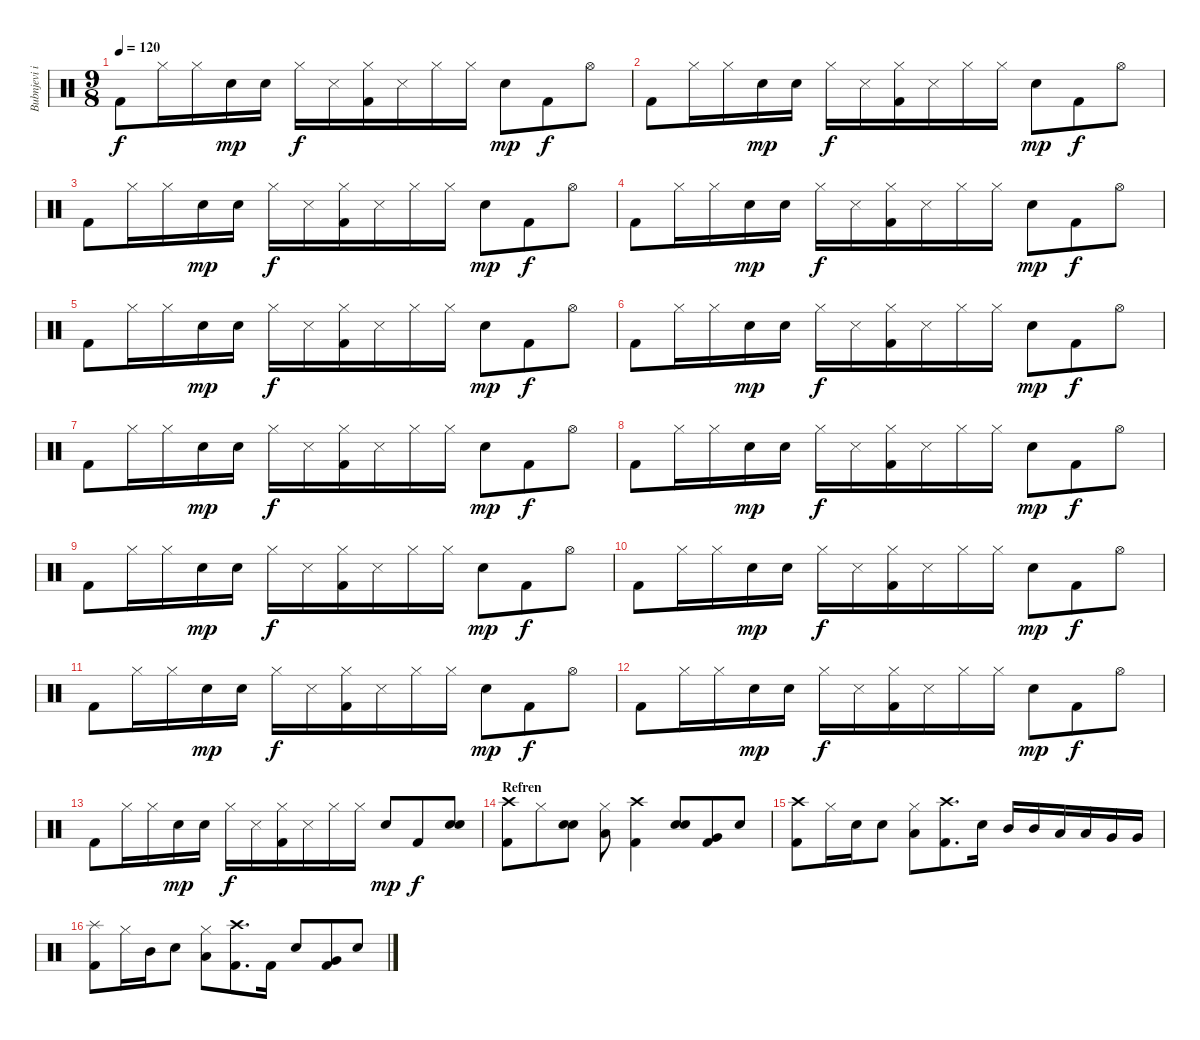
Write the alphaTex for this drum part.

\track ("Bubnjevi i perkusije" "Bubnjevi i") {instrument percussion}
\staff {score}
\articulation defaults
\ts (9 8)
\tempo 120
\clef neutral
\ks c "Kick (hit) 2".8{dy f} "Hi-Hat (closed)".16 "Hi-Hat (closed)".16 "Electric Snare (hit)".16{dy mp} "Electric Snare (hit)".16 "Hi-Hat (closed)".16{dy f} "Snare (side stick) 3".16
("Hi-Hat (closed)" "Kick (hit) 2").16 "Snare (side stick) 3".16 "Hi-Hat (closed)".16 "Hi-Hat (closed)".16 "Electric Snare (hit)".8{dy mp} "Kick (hit) 2".8{dy f} "Hi-Hat (open)".8 |
"Kick (hit) 2".8 "Hi-Hat (closed)".16 "Hi-Hat (closed)".16 "Electric Snare (hit)".16{dy mp} "Electric Snare (hit)".16 "Hi-Hat (closed)".16{dy f} "Snare (side stick) 3".16 ("Hi-Hat (closed)" "Kick (hit) 2").16 "Snare (side stick) 3".16 "Hi-Hat (closed)".16 "Hi-Hat (closed)".16 "Electric Snare (hit)".8{dy mp} "Kick (hit) 2".8{dy f} "Hi-Hat (open)".8 |
"Kick (hit) 2".8 "Hi-Hat (closed)".16 "Hi-Hat (closed)".16 "Electric Snare (hit)".16{dy mp} "Electric Snare (hit)".16 "Hi-Hat (closed)".16{dy f} "Snare (side stick) 3".16 ("Hi-Hat (closed)" "Kick (hit) 2").16 "Snare (side stick) 3".16 "Hi-Hat (closed)".16 "Hi-Hat (closed)".16 "Electric Snare (hit)".8{dy mp} "Kick (hit) 2".8{dy f} "Hi-Hat (open)".8 |
"Kick (hit) 2".8 "Hi-Hat (closed)".16 "Hi-Hat (closed)".16 "Electric Snare (hit)".16{dy mp} "Electric Snare (hit)".16 "Hi-Hat (closed)".16{dy f} "Snare (side stick) 3".16 ("Hi-Hat (closed)" "Kick (hit) 2").16 "Snare (side stick) 3".16 "Hi-Hat (closed)".16 "Hi-Hat (closed)".16 "Electric Snare (hit)".8{dy mp} "Kick (hit) 2".8{dy f} "Hi-Hat (open)".8 |
"Kick (hit) 2".8 "Hi-Hat (closed)".16 "Hi-Hat (closed)".16 "Electric Snare (hit)".16{dy mp} "Electric Snare (hit)".16 "Hi-Hat (closed)".16{dy f} "Snare (side stick) 3".16 ("Hi-Hat (closed)" "Kick (hit) 2").16 "Snare (side stick) 3".16 "Hi-Hat (closed)".16 "Hi-Hat (closed)".16 "Electric Snare (hit)".8{dy mp} "Kick (hit) 2".8{dy f} "Hi-Hat (open)".8 |
"Kick (hit) 2".8 "Hi-Hat (closed)".16 "Hi-Hat (closed)".16 "Electric Snare (hit)".16{dy mp} "Electric Snare (hit)".16 "Hi-Hat (closed)".16{dy f} "Snare (side stick) 3".16 ("Hi-Hat (closed)" "Kick (hit) 2").16 "Snare (side stick) 3".16 "Hi-Hat (closed)".16 "Hi-Hat (closed)".16 "Electric Snare (hit)".8{dy mp} "Kick (hit) 2".8{dy f} "Hi-Hat (open)".8 |
"Kick (hit) 2".8 "Hi-Hat (closed)".16 "Hi-Hat (closed)".16 "Electric Snare (hit)".16{dy mp} "Electric Snare (hit)".16 "Hi-Hat (closed)".16{dy f} "Snare (side stick) 3".16 ("Hi-Hat (closed)" "Kick (hit) 2").16 "Snare (side stick) 3".16 "Hi-Hat (closed)".16 "Hi-Hat (closed)".16 "Electric Snare (hit)".8{dy mp} "Kick (hit) 2".8{dy f} "Hi-Hat (open)".8 |
"Kick (hit) 2".8 "Hi-Hat (closed)".16 "Hi-Hat (closed)".16 "Electric Snare (hit)".16{dy mp} "Electric Snare (hit)".16 "Hi-Hat (closed)".16{dy f} "Snare (side stick) 3".16 ("Hi-Hat (closed)" "Kick (hit) 2").16 "Snare (side stick) 3".16 "Hi-Hat (closed)".16 "Hi-Hat (closed)".16 "Electric Snare (hit)".8{dy mp} "Kick (hit) 2".8{dy f} "Hi-Hat (open)".8 |
"Kick (hit) 2".8 "Hi-Hat (closed)".16 "Hi-Hat (closed)".16 "Electric Snare (hit)".16{dy mp} "Electric Snare (hit)".16 "Hi-Hat (closed)".16{dy f} "Snare (side stick) 3".16 ("Hi-Hat (closed)" "Kick (hit) 2").16 "Snare (side stick) 3".16 "Hi-Hat (closed)".16 "Hi-Hat (closed)".16 "Electric Snare (hit)".8{dy mp} "Kick (hit) 2".8{dy f} "Hi-Hat (open)".8 |
"Kick (hit) 2".8 "Hi-Hat (closed)".16 "Hi-Hat (closed)".16 "Electric Snare (hit)".16{dy mp} "Electric Snare (hit)".16 "Hi-Hat (closed)".16{dy f} "Snare (side stick) 3".16 ("Hi-Hat (closed)" "Kick (hit) 2").16 "Snare (side stick) 3".16 "Hi-Hat (closed)".16 "Hi-Hat (closed)".16 "Electric Snare (hit)".8{dy mp} "Kick (hit) 2".8{dy f} "Hi-Hat (open)".8 |
"Kick (hit) 2".8 "Hi-Hat (closed)".16 "Hi-Hat (closed)".16 "Electric Snare (hit)".16{dy mp} "Electric Snare (hit)".16 "Hi-Hat (closed)".16{dy f} "Snare (side stick) 3".16 ("Hi-Hat (closed)" "Kick (hit) 2").16 "Snare (side stick) 3".16 "Hi-Hat (closed)".16 "Hi-Hat (closed)".16 "Electric Snare (hit)".8{dy mp} "Kick (hit) 2".8{dy f} "Hi-Hat (open)".8 |
"Kick (hit) 2".8 "Hi-Hat (closed)".16 "Hi-Hat (closed)".16 "Electric Snare (hit)".16{dy mp} "Electric Snare (hit)".16 "Hi-Hat (closed)".16{dy f} "Snare (side stick) 3".16 ("Hi-Hat (closed)" "Kick (hit) 2").16 "Snare (side stick) 3".16 "Hi-Hat (closed)".16 "Hi-Hat (closed)".16 "Electric Snare (hit)".8{dy mp} "Kick (hit) 2".8{dy f} "Hi-Hat (open)".8 |
"Kick (hit) 2".8 "Hi-Hat (closed)".16 "Hi-Hat (closed)".16 "Electric Snare (hit)".16{dy mp} "Electric Snare (hit)".16 "Hi-Hat (closed)".16{dy f} "Snare (side stick) 3".16 ("Hi-Hat (closed)" "Kick (hit) 2").16 "Snare (side stick) 3".16 "Hi-Hat (closed)".16 "Hi-Hat (closed)".16 "Electric Snare (hit)".8{dy mp} "Kick (hit) 2".8{dy f} ("Electric Snare (hit)" "Electric Snare (hit)").8{bd 120} |
\section ("" "Refren")
("Crash high (hit)" "Kick (hit) 2").8 "Hi-Hat (closed)".8 ("Electric Snare (hit)" "Electric Snare (hit)").8{bd 60} ("Hi-Hat (closed)" "Low Tom (hit)").8 ("Crash high (hit)" "Kick (hit) 2").4 ("Electric Snare (hit)" "Electric Snare (hit)").8{bd 60} ("Very Low Tom (hit)" "Kick (hit) 2").8 "Electric Snare (hit)".8 |
("Crash high (hit)" "Kick (hit) 2").8 "Hi-Hat (closed)".16 "Electric Snare (hit)".16 "Electric Snare (hit)".8 ("Hi-Hat (closed)" "Low Tom (hit)").8 ("Crash high (hit)" "Kick (hit) 2").8{d} "Electric Snare (hit)".16 "Mid Tom (hit)".16 "Mid Tom (hit)".16 "Low Tom (hit)".16 "Low Tom (hit)".16 "Very Low Tom (hit)".16 "Very Low Tom (hit)".16 |
("Splash (hit)" "Kick (hit) 2").8 "Hi-Hat (closed)".16 "Mid Tom (hit)".16 "Electric Snare (hit)".8 ("Hi-Hat (closed)" "Low Tom (hit)").8 ("Crash high (hit)" "Kick (hit) 2").8{d} "Kick (hit) 2".16 "Electric Snare (hit)".8 ("Very Low Tom (hit)" "Kick (hit) 2").8 "Electric Snare (hit)".8
